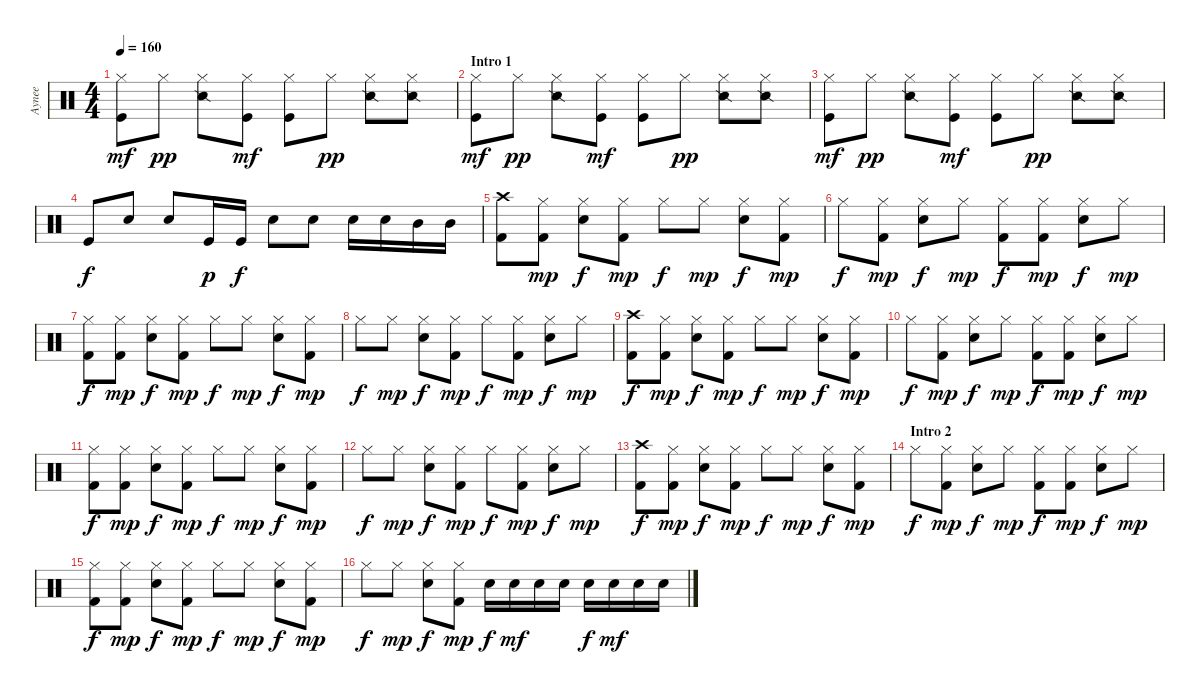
\track ("Aynee " "Aynee ") {instrument percussion}
\staff {score}
\articulation defaults
\ts (4 4)
\tempo 160
\clef neutral
\ks c
("Hi-Hat (closed)" "Kick (hit)").8{dy mf} "Hi-Hat (closed)".8{dy pp} ("Snare (side stick) 2" "Hi-Hat (closed)").8 ("Hi-Hat (closed)" "Kick (hit)").8{dy mf} ("Hi-Hat (closed)" "Kick (hit)").8 "Hi-Hat (closed)".8{dy pp} ("Snare (side stick) 2" "Hi-Hat (closed)").8 ("Snare (side stick) 2" "Hi-Hat (closed)").8 |
\section ("" "Intro 1")
("Hi-Hat (closed)" "Kick (hit)").8{dy mf} "Hi-Hat (closed)".8{dy pp} ("Snare (side stick) 2" "Hi-Hat (closed)").8 ("Hi-Hat (closed)" "Kick (hit)").8{dy mf} ("Hi-Hat (closed)" "Kick (hit)").8 "Hi-Hat (closed)".8{dy pp} ("Snare (side stick) 2" "Hi-Hat (closed)").8 ("Snare (side stick) 2" "Hi-Hat (closed)").8 |
("Hi-Hat (closed)" "Kick (hit)").8{dy mf} "Hi-Hat (closed)".8{dy pp} ("Snare (side stick) 2" "Hi-Hat (closed)").8 ("Hi-Hat (closed)" "Kick (hit)").8{dy mf} ("Hi-Hat (closed)" "Kick (hit)").8 "Hi-Hat (closed)".8{dy pp} ("Snare (side stick) 2" "Hi-Hat (closed)").8 ("Snare (side stick) 2" "Hi-Hat (closed)").8 |
"Kick (hit)".8{dy f} "Electric Snare (hit)".8 "Electric Snare (hit)".8 "Kick (hit)".16{dy p} "Kick (hit)".16{dy f} "Electric Snare (hit)".8 "Electric Snare (hit)".8 "Electric Snare (hit)".16 "Electric Snare (hit)".16 "Mid Tom (hit)".16 "Mid Tom (hit)".16 |
("Crash high (hit)" "Kick (hit) 2").8 ("Hi-Hat (closed)" "Kick (hit) 2").8{dy mp} ("Hi-Hat (closed)" "Electric Snare (hit)").8{dy f} ("Hi-Hat (closed)" "Kick (hit) 2").8{dy mp} "Hi-Hat (closed)".8{dy f} "Hi-Hat (closed)".8{dy mp} ("Hi-Hat (closed)" "Electric Snare (hit)").8{dy f} ("Hi-Hat (closed)" "Kick (hit) 2").8{dy mp} |
"Hi-Hat (closed)".8{dy f} ("Hi-Hat (closed)" "Kick (hit) 2").8{dy mp} ("Hi-Hat (closed)" "Electric Snare (hit)").8{dy f} "Hi-Hat (closed)".8{dy mp} ("Hi-Hat (closed)" "Kick (hit) 2").8{dy f} ("Hi-Hat (closed)" "Kick (hit) 2").8{dy mp} ("Hi-Hat (closed)" "Electric Snare (hit)").8{dy f} "Hi-Hat (closed)".8{dy mp} |
("Hi-Hat (closed)" "Kick (hit) 2").8{dy f} ("Hi-Hat (closed)" "Kick (hit) 2").8{dy mp} ("Hi-Hat (closed)" "Electric Snare (hit)").8{dy f} ("Hi-Hat (closed)" "Kick (hit) 2").8{dy mp} "Hi-Hat (closed)".8{dy f} "Hi-Hat (closed)".8{dy mp} ("Hi-Hat (closed)" "Electric Snare (hit)").8{dy f} ("Hi-Hat (closed)" "Kick (hit) 2").8{dy mp} |
"Hi-Hat (closed)".8{dy f} "Hi-Hat (closed)".8{dy mp} ("Hi-Hat (closed)" "Electric Snare (hit)").8{dy f} ("Hi-Hat (closed)" "Kick (hit) 2").8{dy mp} "Hi-Hat (closed)".8{dy f} ("Hi-Hat (closed)" "Kick (hit) 2").8{dy mp} ("Hi-Hat (closed)" "Electric Snare (hit)").8{dy f} "Hi-Hat (closed)".8{dy mp} |
("Crash high (hit)" "Kick (hit) 2").8{dy f} ("Hi-Hat (closed)" "Kick (hit) 2").8{dy mp} ("Hi-Hat (closed)" "Electric Snare (hit)").8{dy f} ("Hi-Hat (closed)" "Kick (hit) 2").8{dy mp} "Hi-Hat (closed)".8{dy f} "Hi-Hat (closed)".8{dy mp} ("Hi-Hat (closed)" "Electric Snare (hit)").8{dy f} ("Hi-Hat (closed)" "Kick (hit) 2").8{dy mp} |
"Hi-Hat (closed)".8{dy f} ("Hi-Hat (closed)" "Kick (hit) 2").8{dy mp} ("Hi-Hat (closed)" "Electric Snare (hit)").8{dy f} "Hi-Hat (closed)".8{dy mp} ("Hi-Hat (closed)" "Kick (hit) 2").8{dy f} ("Hi-Hat (closed)" "Kick (hit) 2").8{dy mp} ("Hi-Hat (closed)" "Electric Snare (hit)").8{dy f} "Hi-Hat (closed)".8{dy mp} |
("Hi-Hat (closed)" "Kick (hit) 2").8{dy f} ("Hi-Hat (closed)" "Kick (hit) 2").8{dy mp} ("Hi-Hat (closed)" "Electric Snare (hit)").8{dy f} ("Hi-Hat (closed)" "Kick (hit) 2").8{dy mp} "Hi-Hat (closed)".8{dy f} "Hi-Hat (closed)".8{dy mp} ("Hi-Hat (closed)" "Electric Snare (hit)").8{dy f} ("Hi-Hat (closed)" "Kick (hit) 2").8{dy mp} |
"Hi-Hat (closed)".8{dy f} "Hi-Hat (closed)".8{dy mp} ("Hi-Hat (closed)" "Electric Snare (hit)").8{dy f} ("Hi-Hat (closed)" "Kick (hit) 2").8{dy mp} "Hi-Hat (closed)".8{dy f} ("Hi-Hat (closed)" "Kick (hit) 2").8{dy mp} ("Hi-Hat (closed)" "Electric Snare (hit)").8{dy f} "Hi-Hat (closed)".8{dy mp} |
("Crash high (hit)" "Kick (hit) 2").8{dy f} ("Hi-Hat (closed)" "Kick (hit) 2").8{dy mp} ("Hi-Hat (closed)" "Electric Snare (hit)").8{dy f} ("Hi-Hat (closed)" "Kick (hit) 2").8{dy mp} "Hi-Hat (closed)".8{dy f} "Hi-Hat (closed)".8{dy mp} ("Hi-Hat (closed)" "Electric Snare (hit)").8{dy f} ("Hi-Hat (closed)" "Kick (hit) 2").8{dy mp} |
\section ("" "Intro 2")
"Hi-Hat (closed)".8{dy f} ("Hi-Hat (closed)" "Kick (hit) 2").8{dy mp} ("Hi-Hat (closed)" "Electric Snare (hit)").8{dy f} "Hi-Hat (closed)".8{dy mp} ("Hi-Hat (closed)" "Kick (hit) 2").8{dy f} ("Hi-Hat (closed)" "Kick (hit) 2").8{dy mp} ("Hi-Hat (closed)" "Electric Snare (hit)").8{dy f} "Hi-Hat (closed)".8{dy mp} |
("Hi-Hat (closed)" "Kick (hit) 2").8{dy f} ("Hi-Hat (closed)" "Kick (hit) 2").8{dy mp} ("Hi-Hat (closed)" "Electric Snare (hit)").8{dy f} ("Hi-Hat (closed)" "Kick (hit) 2").8{dy mp} "Hi-Hat (closed)".8{dy f} "Hi-Hat (closed)".8{dy mp} ("Hi-Hat (closed)" "Electric Snare (hit)").8{dy f} ("Hi-Hat (closed)" "Kick (hit) 2").8{dy mp} |
"Hi-Hat (closed)".8{dy f} "Hi-Hat (closed)".8{dy mp} ("Hi-Hat (closed)" "Electric Snare (hit)").8{dy f} ("Hi-Hat (closed)" "Kick (hit) 2").8{dy mp} "Electric Snare (hit)".16{dy f} "Electric Snare (hit)".16{dy mf} "Electric Snare (hit)".16 "Electric Snare (hit)".16 "Electric Snare (hit)".16{dy f} "Electric Snare (hit)".16{dy mf} "Electric Snare (hit)".16 "Electric Snare (hit)".16
